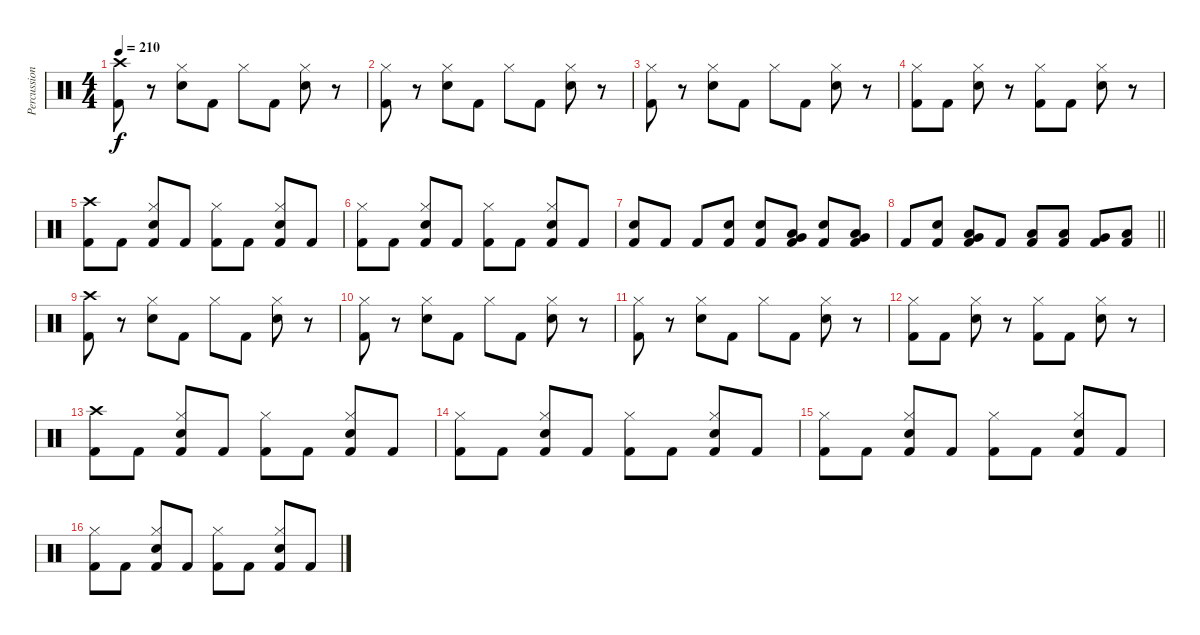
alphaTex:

\track ("Percussion" "Percussion") {instrument percussion}
\staff {score}
\articulation defaults
\ts (4 4)
\tempo 210
\clef neutral
\ks c
("Crash high (hit)" "Kick (hit) 2").8{dy f} r.8 ("Hi-Hat (closed)" "Electric Snare (hit)").8 "Kick (hit) 2".8 "Hi-Hat (closed)".8 "Kick (hit) 2".8 ("Hi-Hat (closed)" "Electric Snare (hit)").8 r.8 |
("Hi-Hat (closed)" "Kick (hit) 2").8 r.8 ("Hi-Hat (closed)" "Electric Snare (hit)").8 "Kick (hit) 2".8 "Hi-Hat (closed)".8 "Kick (hit) 2".8 ("Hi-Hat (closed)" "Electric Snare (hit)").8 r.8 |
("Hi-Hat (closed)" "Kick (hit) 2").8 r.8 ("Hi-Hat (closed)" "Electric Snare (hit)").8 "Kick (hit) 2".8 "Hi-Hat (closed)".8 "Kick (hit) 2".8 ("Hi-Hat (closed)" "Electric Snare (hit)").8 r.8 |
("Hi-Hat (closed)" "Kick (hit) 2").8 "Kick (hit) 2".8 ("Hi-Hat (closed)" "Electric Snare (hit)").8 r.8 ("Hi-Hat (closed)" "Kick (hit) 2").8 "Kick (hit) 2".8 ("Hi-Hat (closed)" "Electric Snare (hit)").8 r.8 |
("Crash high (hit)" "Kick (hit) 2").8 "Kick (hit) 2".8 ("Hi-Hat (closed)" "Electric Snare (hit)" "Kick (hit) 2").8 "Kick (hit) 2".8 ("Hi-Hat (closed)" "Kick (hit) 2").8 "Kick (hit) 2".8 ("Hi-Hat (closed)" "Electric Snare (hit)" "Kick (hit) 2").8 "Kick (hit) 2".8 |
("Hi-Hat (closed)" "Kick (hit) 2").8 "Kick (hit) 2".8 ("Hi-Hat (closed)" "Electric Snare (hit)" "Kick (hit) 2").8 "Kick (hit) 2".8 ("Hi-Hat (closed)" "Kick (hit) 2").8 "Kick (hit) 2".8 ("Hi-Hat (closed)" "Electric Snare (hit)" "Kick (hit) 2").8 "Kick (hit) 2".8 |
("Electric Snare (hit)" "Kick (hit) 2").8 "Kick (hit) 2".8 "Kick (hit) 2".8 ("Electric Snare (hit)" "Kick (hit) 2").8 ("Electric Snare (hit)" "Kick (hit) 2").8 ("Low Tom (hit)" "Very Low Tom (hit)" "Kick (hit) 2").8 ("Electric Snare (hit)" "Kick (hit) 2").8 ("Low Tom (hit)" "Very Low Tom (hit)" "Kick (hit) 2").8 |
\barLineRight lightlight "Kick (hit) 2".8
("Electric Snare (hit)" "Kick (hit) 2").8 ("Low Tom (hit)" "Very Low Tom (hit)" "Kick (hit) 2").8 "Kick (hit) 2".8 ("Low Tom (hit)" "Kick (hit) 2").8 ("Low Tom (hit)" "Kick (hit) 2").8 ("Very Low Tom (hit)" "Kick (hit) 2").8 ("Low Floor Tom (hit)" "Kick (hit) 2").8 |
("Crash high (hit)" "Kick (hit) 2").8 r.8 ("Hi-Hat (closed)" "Electric Snare (hit)").8 "Kick (hit) 2".8 "Hi-Hat (closed)".8 "Kick (hit) 2".8 ("Hi-Hat (closed)" "Electric Snare (hit)").8 r.8 |
("Hi-Hat (closed)" "Kick (hit) 2").8 r.8 ("Hi-Hat (closed)" "Electric Snare (hit)").8 "Kick (hit) 2".8 "Hi-Hat (closed)".8 "Kick (hit) 2".8 ("Hi-Hat (closed)" "Electric Snare (hit)").8 r.8 |
("Hi-Hat (closed)" "Kick (hit) 2").8 r.8 ("Hi-Hat (closed)" "Electric Snare (hit)").8 "Kick (hit) 2".8 "Hi-Hat (closed)".8 "Kick (hit) 2".8 ("Hi-Hat (closed)" "Electric Snare (hit)").8 r.8 |
("Hi-Hat (closed)" "Kick (hit) 2").8 "Kick (hit) 2".8 ("Hi-Hat (closed)" "Electric Snare (hit)").8 r.8 ("Hi-Hat (closed)" "Kick (hit) 2").8 "Kick (hit) 2".8 ("Hi-Hat (closed)" "Electric Snare (hit)").8 r.8 |
("Crash high (hit)" "Kick (hit) 2").8 "Kick (hit) 2".8 ("Hi-Hat (closed)" "Electric Snare (hit)" "Kick (hit) 2").8 "Kick (hit) 2".8 ("Hi-Hat (closed)" "Kick (hit) 2").8 "Kick (hit) 2".8 ("Hi-Hat (closed)" "Electric Snare (hit)" "Kick (hit) 2").8 "Kick (hit) 2".8 |
("Hi-Hat (closed)" "Kick (hit) 2").8 "Kick (hit) 2".8 ("Hi-Hat (closed)" "Electric Snare (hit)" "Kick (hit) 2").8 "Kick (hit) 2".8 ("Hi-Hat (closed)" "Kick (hit) 2").8 "Kick (hit) 2".8 ("Hi-Hat (closed)" "Electric Snare (hit)" "Kick (hit) 2").8 "Kick (hit) 2".8 |
("Hi-Hat (closed)" "Kick (hit) 2").8 "Kick (hit) 2".8 ("Hi-Hat (closed)" "Electric Snare (hit)" "Kick (hit) 2").8 "Kick (hit) 2".8 ("Hi-Hat (closed)" "Kick (hit) 2").8 "Kick (hit) 2".8 ("Hi-Hat (closed)" "Electric Snare (hit)" "Kick (hit) 2").8 "Kick (hit) 2".8 |
("Hi-Hat (closed)" "Kick (hit) 2").8 "Kick (hit) 2".8 ("Hi-Hat (closed)" "Electric Snare (hit)" "Kick (hit) 2").8 "Kick (hit) 2".8 ("Hi-Hat (closed)" "Kick (hit) 2").8 "Kick (hit) 2".8 ("Hi-Hat (closed)" "Electric Snare (hit)" "Kick (hit) 2").8 "Kick (hit) 2".8
